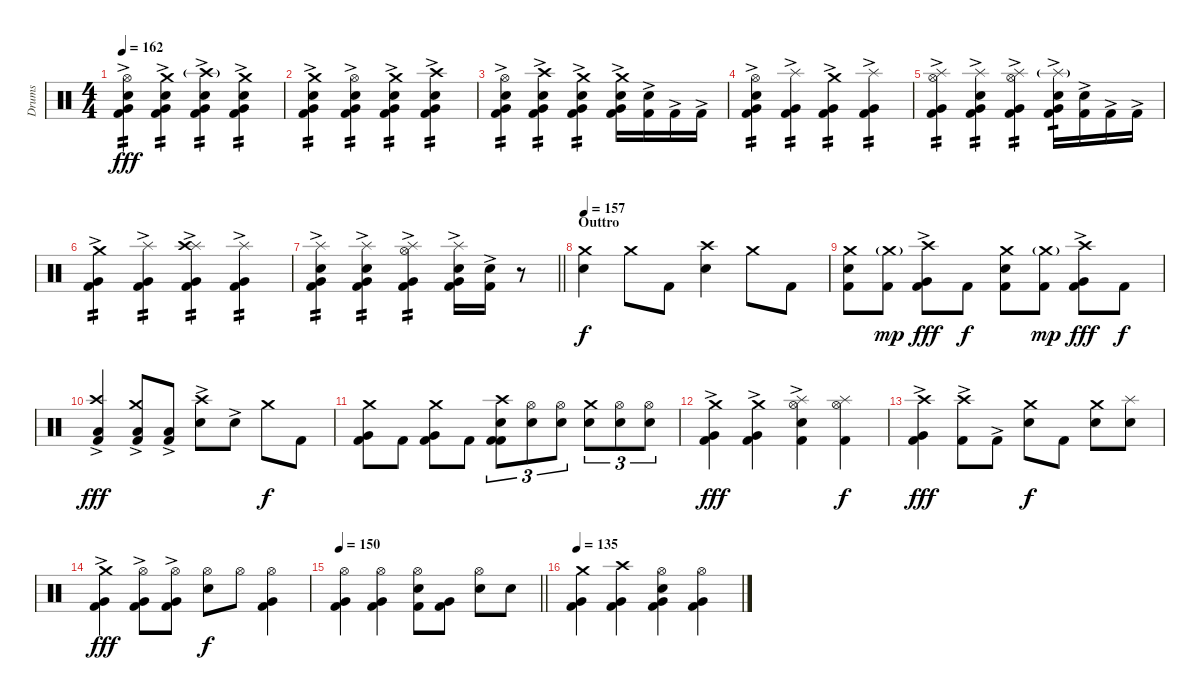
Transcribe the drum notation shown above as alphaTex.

\track ("Drums" "Drums") {instrument percussion}
\staff {score}
\articulation defaults
\ts (4 4)
\tempo 162
\clef neutral
\ks c
("Hi-Hat (open)" "Electric Snare (hit)" "Very Low Tom (hit)" "Kick (hit) 2"{ac}).4{tp 2 dy fff} ("Crash medium (hit)" "Electric Snare (hit)" "Very Low Tom (hit)" "Kick (hit) 2"{ac}).4{tp 2} ("Crash high (hit)"{g} "Electric Snare (hit)" "Very Low Tom (hit)" "Kick (hit) 2"{ac}).4{tp 2} ("Crash medium (hit)" "Electric Snare (hit)" "Very Low Tom (hit)" "Kick (hit) 2"{ac}).4{tp 2} |
("Crash medium (hit)" "Electric Snare (hit)" "Very Low Tom (hit)" "Kick (hit) 2"{ac}).4{tp 2} ("Hi-Hat (open)" "Electric Snare (hit)" "Very Low Tom (hit)" "Kick (hit) 2"{ac}).4{tp 2} ("Crash medium (hit)" "Electric Snare (hit)" "Very Low Tom (hit)" "Kick (hit) 2"{ac}).4{tp 2} ("Crash high (hit)" "Electric Snare (hit)" "Very Low Tom (hit)" "Kick (hit) 2"{ac}).4{tp 2} |
("Hi-Hat (open)" "Electric Snare (hit)" "Very Low Tom (hit)" "Kick (hit) 2"{ac}).4{tp 2} ("Crash high (hit)" "Electric Snare (hit)" "Very Low Tom (hit)" "Kick (hit) 2"{ac}).4{tp 2} ("Crash medium (hit)" "Electric Snare (hit)" "Very Low Tom (hit)" "Kick (hit) 2"{ac}).4{tp 2} ("Crash medium (hit)" "Electric Snare (hit)" "Very Low Tom (hit)" "Kick (hit) 2"{ac}).16 ("Electric Snare (hit)" "Kick (hit) 2"{ac}).16 "Kick (hit) 2"{ac}.16 "Kick (hit) 2"{ac}.16 |
("Hi-Hat (open)" "Electric Snare (hit)" "Very Low Tom (hit)" "Kick (hit) 2"{ac}).4{tp 2} ("Splash (hit)" "Very Low Tom (hit)" "Kick (hit) 2"{ac}).4{tp 2} ("Crash medium (hit)" "Very Low Tom (hit)" "Kick (hit) 2"{ac}).4{tp 2} ("Splash (hit)" "Very Low Tom (hit)" "Kick (hit) 2"{ac}).4{tp 2} |
("Splash (hit)" "Hi-Hat (open)" "Very Low Tom (hit)" "Kick (hit) 2"{ac}).4{tp 2} ("Splash (hit)" "Electric Snare (hit)" "Very Low Tom (hit)" "Kick (hit) 2"{ac}).4{tp 2} ("Splash (hit)" "Hi-Hat (open)" "Very Low Tom (hit)" "Kick (hit) 2"{ac}).4{tp 2} ("Splash (hit)"{g} "Electric Snare (hit)"{ac} "Very Low Tom (hit)" "Kick (hit) 2"{ac}).16{tp 1} ("Electric Snare (hit)"{ac} "Kick (hit) 2"{ac}).16 "Kick (hit) 2"{ac}.16 "Kick (hit) 2"{ac}.16 |
("Crash medium (hit)" "Very Low Tom (hit)" "Kick (hit) 2"{ac}).4{tp 2} ("Splash (hit)" "Very Low Tom (hit)" "Kick (hit) 2"{ac}).4{tp 2} ("Splash (hit)" "Crash high (hit)" "Very Low Tom (hit)" "Kick (hit) 2"{ac}).4{tp 2} ("Splash (hit)" "Very Low Tom (hit)" "Kick (hit) 2"{ac}).4{tp 2} |
\barLineRight lightlight
("Splash (hit)" "Electric Snare (hit)" "Very Low Tom (hit)" "Kick (hit) 2"{ac}).4{tp 2} ("Splash (hit)" "Electric Snare (hit)" "Very Low Tom (hit)" "Kick (hit) 2"{ac}).4{tp 2} ("Splash (hit)" "Hi-Hat (open)" "Very Low Tom (hit)" "Kick (hit) 2"{ac}).4{tp 2} ("Splash (hit)" "Electric Snare (hit)" "Very Low Tom (hit)" "Kick (hit) 2"{ac}).16 ("Electric Snare (hit)" "Kick (hit) 2"{ac}).16 r.8 |
\section ("" "Outtro")
\tempo 157
("Crash medium (hit)" "Electric Snare (hit)").4{dy f} "Crash medium (hit)".8 "Kick (hit) 2".8 ("Crash high (hit)" "Electric Snare (hit)").4 "Crash medium (hit)".8 "Kick (hit) 2".8 |
("Crash medium (hit)" "Electric Snare (hit)" "Kick (hit) 2").8 ("Crash medium (hit)"{g} "Kick (hit) 2").8{dy mp} ("Crash high (hit)" "Very Low Tom (hit)"{ac} "Kick (hit) 2").8{dy fff} "Kick (hit) 2".8{dy f} ("Crash medium (hit)" "Electric Snare (hit)" "Kick (hit) 2").8 ("Crash medium (hit)"{g} "Kick (hit) 2").8{dy mp} ("Crash high (hit)" "Very Low Tom (hit)"{ac} "Kick (hit) 2").8{dy fff} "Kick (hit) 2".8{dy f} |
("Crash high (hit)"{ac} "Low Floor Tom (hit)"{ac} "Kick (hit) 2").4{dy fff} ("Crash medium (hit)" "Low Floor Tom (hit)"{ac} "Kick (hit) 2").8 ("Low Floor Tom (hit)"{ac} "Kick (hit) 2").8 ("Crash high (hit)" "Electric Snare (hit)"{ac}).8 "Electric Snare (hit)"{ac}.8 "Crash medium (hit)".8{dy f} "Kick (hit) 2".8 |
("Crash medium (hit)" "Very Low Tom (hit)" "Kick (hit) 2").8 "Kick (hit) 2".8 ("Crash medium (hit)" "Very Low Tom (hit)" "Kick (hit) 2").8 "Kick (hit) 2".8 ("Crash high (hit)" "Electric Snare (hit)" "Kick (hit) 2" "Kick (hit) 2").8{tu (3 2)} ("Hi-Hat (open)" "Electric Snare (hit)").8{tu (3 2)} ("Hi-Hat (open)" "Electric Snare (hit)").8{tu (3 2)} ("Crash medium (hit)" "Electric Snare (hit)").8{tu (3 2)} ("Hi-Hat (open)" "Electric Snare (hit)").8{tu (3 2)} ("Hi-Hat (open)" "Electric Snare (hit)").8{tu (3 2)} |
("Crash medium (hit)"{ac} "Very Low Tom (hit)"{ac} "Kick (hit) 2").4{dy fff} ("Crash medium (hit)" "Very Low Tom (hit)"{ac} "Kick (hit) 2").4 ("Hi-Hat (open)"{ac} "Splash (hit)" "Electric Snare (hit)" "Kick (hit) 2").4 ("Hi-Hat (open)" "Splash (hit)" "Kick (hit) 2").4{dy f} |
("Crash high (hit)"{ac} "Very Low Tom (hit)" "Kick (hit) 2").4{dy fff} ("Crash high (hit)" "Kick (hit) 2"{ac}).8 "Kick (hit) 2"{ac}.8 ("Crash medium (hit)" "Electric Snare (hit)").8{dy f} "Kick (hit) 2".8 ("Crash medium (hit)" "Electric Snare (hit)").8 ("Splash (hit)" "Electric Snare (hit)").8 |
("Crash medium (hit)" "Very Low Tom (hit)"{ac} "Kick (hit) 2").4{dy fff} ("Hi-Hat (open)" "Very Low Tom (hit)"{ac} "Kick (hit) 2").8 ("Hi-Hat (open)" "Very Low Tom (hit)"{ac} "Kick (hit) 2").8 ("Hi-Hat (open)" "Electric Snare (hit)").8{dy f} "Hi-Hat (open)".8 ("Hi-Hat (open)" "Very Low Tom (hit)" "Kick (hit) 2").4 |
\tempo 150
\barLineRight lightlight
("Hi-Hat (open)" "Very Low Tom (hit)" "Kick (hit) 2").4 ("Hi-Hat (open)" "Very Low Tom (hit)" "Kick (hit) 2").4 ("Hi-Hat (open)" "Electric Snare (hit)" "Kick (hit) 2").8 ("Very Low Tom (hit)" "Kick (hit) 2").8 ("Hi-Hat (open)" "Electric Snare (hit)").8 "Electric Snare (hit)".8 |
\tempo 135
("Crash medium (hit)" "Very Low Tom (hit)" "Kick (hit) 2").4 ("Crash high (hit)" "Very Low Tom (hit)" "Kick (hit) 2").4 ("Hi-Hat (open)" "Electric Snare (hit)" "Very Low Tom (hit)" "Kick (hit) 2").4 ("Hi-Hat (open)" "Very Low Tom (hit)" "Kick (hit) 2").4
